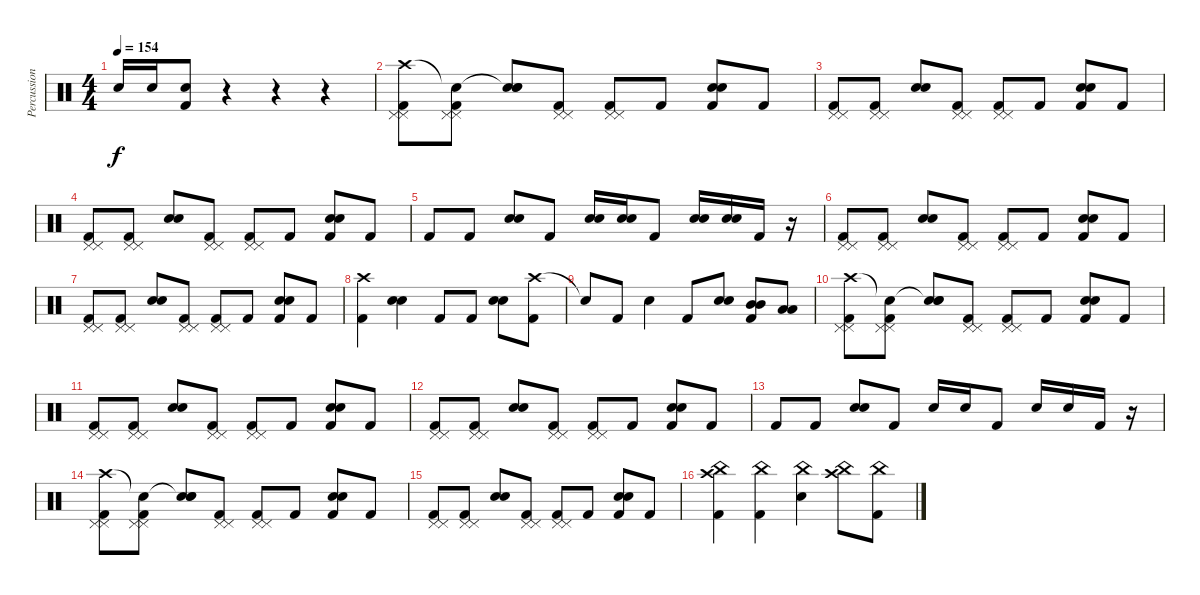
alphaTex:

\track ("Percussion" "Percussion") {instrument percussion}
\staff {score}
\articulation defaults
\ts (4 4)
\tempo 154
\clef neutral
\ks c "Electric Snare (hit)".16{dy f} "Electric Snare (hit)".16
("Electric Snare (hit)" "Kick (hit) 2").8 r.4 r.4 r.4 |
("Pedal Hi-Hat (hit)" "Pedal Hi-Hat (hit)" "Crash high (hit)" "Kick (hit) 2").8 ("Pedal Hi-Hat (hit)" "Pedal Hi-Hat (hit)" "Snare (hit)"{t} "Kick (hit) 2").8 ("Electric Snare (hit)" "Electric Snare (hit)" "Snare (hit)"{t}).8 ("Pedal Hi-Hat (hit)" "Pedal Hi-Hat (hit)" "Kick (hit) 2").8 ("Pedal Hi-Hat (hit)" "Pedal Hi-Hat (hit)" "Kick (hit) 2").8 "Kick (hit) 2".8 ("Electric Snare (hit)" "Electric Snare (hit)" "Kick (hit) 2").8 "Kick (hit) 2".8 |
("Pedal Hi-Hat (hit)" "Pedal Hi-Hat (hit)" "Kick (hit) 2").8 ("Pedal Hi-Hat (hit)" "Pedal Hi-Hat (hit)" "Kick (hit) 2").8 ("Electric Snare (hit)" "Electric Snare (hit)").8 ("Pedal Hi-Hat (hit)" "Pedal Hi-Hat (hit)" "Kick (hit) 2").8 ("Pedal Hi-Hat (hit)" "Pedal Hi-Hat (hit)" "Kick (hit) 2").8 "Kick (hit) 2".8 ("Electric Snare (hit)" "Electric Snare (hit)" "Kick (hit) 2").8 "Kick (hit) 2".8 |
("Pedal Hi-Hat (hit)" "Pedal Hi-Hat (hit)" "Kick (hit) 2").8 ("Pedal Hi-Hat (hit)" "Pedal Hi-Hat (hit)" "Kick (hit) 2").8 ("Electric Snare (hit)" "Electric Snare (hit)").8 ("Pedal Hi-Hat (hit)" "Pedal Hi-Hat (hit)" "Kick (hit) 2").8 ("Pedal Hi-Hat (hit)" "Pedal Hi-Hat (hit)" "Kick (hit) 2").8 "Kick (hit) 2".8 ("Electric Snare (hit)" "Electric Snare (hit)" "Kick (hit) 2").8 "Kick (hit) 2".8 |
"Kick (hit) 2".8 "Kick (hit) 2".8 ("Electric Snare (hit)" "Electric Snare (hit)").8 "Kick (hit) 2".8 ("Electric Snare (hit)" "Electric Snare (hit)").16 ("Electric Snare (hit)" "Electric Snare (hit)").16 "Kick (hit) 2".8 ("Electric Snare (hit)" "Electric Snare (hit)").16 ("Electric Snare (hit)" "Electric Snare (hit)").16 "Kick (hit) 2".16 r.16 |
("Pedal Hi-Hat (hit)" "Pedal Hi-Hat (hit)" "Kick (hit) 2").8 ("Pedal Hi-Hat (hit)" "Pedal Hi-Hat (hit)" "Kick (hit) 2").8 ("Electric Snare (hit)" "Electric Snare (hit)").8 ("Pedal Hi-Hat (hit)" "Pedal Hi-Hat (hit)" "Kick (hit) 2").8 ("Pedal Hi-Hat (hit)" "Pedal Hi-Hat (hit)" "Kick (hit) 2").8 "Kick (hit) 2".8 ("Electric Snare (hit)" "Electric Snare (hit)" "Kick (hit) 2").8 "Kick (hit) 2".8 |
("Pedal Hi-Hat (hit)" "Pedal Hi-Hat (hit)" "Kick (hit) 2").8 ("Pedal Hi-Hat (hit)" "Pedal Hi-Hat (hit)" "Kick (hit) 2").8 ("Electric Snare (hit)" "Electric Snare (hit)").8 ("Pedal Hi-Hat (hit)" "Pedal Hi-Hat (hit)" "Kick (hit) 2").8 ("Pedal Hi-Hat (hit)" "Pedal Hi-Hat (hit)" "Kick (hit) 2").8 "Kick (hit) 2".8 ("Electric Snare (hit)" "Electric Snare (hit)" "Kick (hit) 2").8 "Kick (hit) 2".8 |
("Crash high (hit)" "Kick (hit) 2").4 ("Electric Snare (hit)" "Electric Snare (hit)").4 "Kick (hit) 2".8 "Kick (hit) 2".8 ("Electric Snare (hit)" "Electric Snare (hit)").8 ("Crash high (hit)" "Kick (hit) 2").8 |
"Snare (hit)"{t}.8 "Kick (hit) 2".8 "Electric Snare (hit)".4 "Kick (hit) 2".8 ("Electric Snare (hit)" "Electric Snare (hit)").8 ("Mid Tom (hit)" "Mid Tom (hit)" "Kick (hit) 2").8 ("Low Tom (hit)" "Low Tom (hit)").8 |
("Pedal Hi-Hat (hit)" "Pedal Hi-Hat (hit)" "Crash high (hit)" "Kick (hit) 2").8 ("Pedal Hi-Hat (hit)" "Pedal Hi-Hat (hit)" "Snare (hit)"{t} "Kick (hit) 2").8 ("Electric Snare (hit)" "Electric Snare (hit)" "Snare (hit)"{t}).8 ("Pedal Hi-Hat (hit)" "Pedal Hi-Hat (hit)" "Kick (hit) 2").8 ("Pedal Hi-Hat (hit)" "Pedal Hi-Hat (hit)" "Kick (hit) 2").8 "Kick (hit) 2".8 ("Electric Snare (hit)" "Electric Snare (hit)" "Kick (hit) 2").8 "Kick (hit) 2".8 |
("Pedal Hi-Hat (hit)" "Pedal Hi-Hat (hit)" "Kick (hit) 2").8 ("Pedal Hi-Hat (hit)" "Pedal Hi-Hat (hit)" "Kick (hit) 2").8 ("Electric Snare (hit)" "Electric Snare (hit)").8 ("Pedal Hi-Hat (hit)" "Pedal Hi-Hat (hit)" "Kick (hit) 2").8 ("Pedal Hi-Hat (hit)" "Pedal Hi-Hat (hit)" "Kick (hit) 2").8 "Kick (hit) 2".8 ("Electric Snare (hit)" "Electric Snare (hit)" "Kick (hit) 2").8 "Kick (hit) 2".8 |
("Pedal Hi-Hat (hit)" "Pedal Hi-Hat (hit)" "Kick (hit) 2").8 ("Pedal Hi-Hat (hit)" "Pedal Hi-Hat (hit)" "Kick (hit) 2").8 ("Electric Snare (hit)" "Electric Snare (hit)").8 ("Pedal Hi-Hat (hit)" "Pedal Hi-Hat (hit)" "Kick (hit) 2").8 ("Pedal Hi-Hat (hit)" "Pedal Hi-Hat (hit)" "Kick (hit) 2").8 "Kick (hit) 2".8 ("Electric Snare (hit)" "Electric Snare (hit)" "Kick (hit) 2").8 "Kick (hit) 2".8 |
"Kick (hit) 2".8 "Kick (hit) 2".8 ("Electric Snare (hit)" "Electric Snare (hit)").8 "Kick (hit) 2".8 "Electric Snare (hit)".16 "Electric Snare (hit)".16 "Kick (hit) 2".8 "Electric Snare (hit)".16 "Electric Snare (hit)".16 "Kick (hit) 2".16 r.16 |
("Pedal Hi-Hat (hit)" "Pedal Hi-Hat (hit)" "Crash high (hit)" "Kick (hit) 2").8 ("Pedal Hi-Hat (hit)" "Pedal Hi-Hat (hit)" "Snare (hit)"{t} "Kick (hit) 2").8 ("Electric Snare (hit)" "Electric Snare (hit)" "Snare (hit)"{t}).8 ("Pedal Hi-Hat (hit)" "Pedal Hi-Hat (hit)" "Kick (hit) 2").8 ("Pedal Hi-Hat (hit)" "Pedal Hi-Hat (hit)" "Kick (hit) 2").8 "Kick (hit) 2".8 ("Electric Snare (hit)" "Electric Snare (hit)" "Kick (hit) 2").8 "Kick (hit) 2".8 |
("Pedal Hi-Hat (hit)" "Pedal Hi-Hat (hit)" "Kick (hit) 2").8 ("Pedal Hi-Hat (hit)" "Pedal Hi-Hat (hit)" "Kick (hit) 2").8 ("Electric Snare (hit)" "Electric Snare (hit)").8 ("Pedal Hi-Hat (hit)" "Pedal Hi-Hat (hit)" "Kick (hit) 2").8 ("Pedal Hi-Hat (hit)" "Pedal Hi-Hat (hit)" "Kick (hit) 2").8 "Kick (hit) 2".8 ("Electric Snare (hit)" "Electric Snare (hit)" "Kick (hit) 2").8 "Kick (hit) 2".8 |
("China (hit)" "Crash high (hit)" "Kick (hit) 2").4 ("China (hit)" "Kick (hit) 2").4 ("China (hit)" "Electric Snare (hit)").4 ("China (hit)" "Crash high (hit)").8 ("China (hit)" "Kick (hit) 2").8
